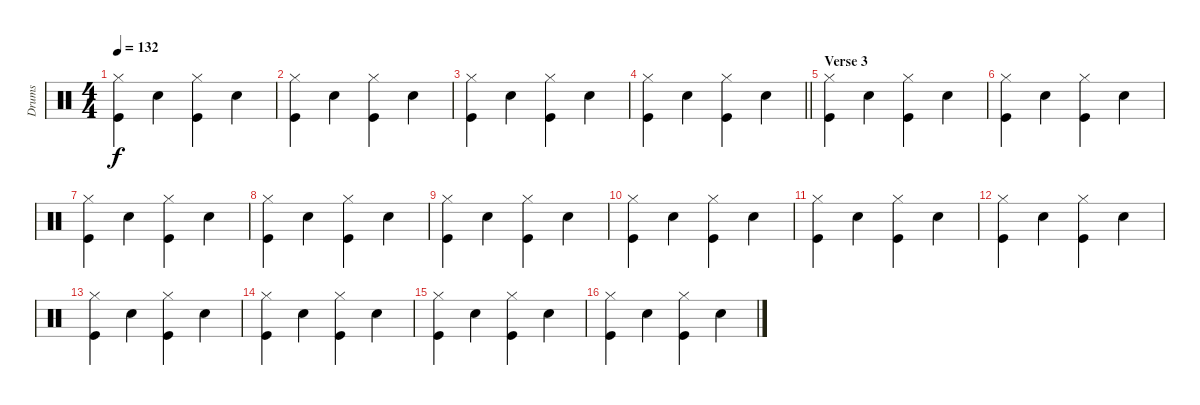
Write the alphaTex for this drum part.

\track ("Drums" "Drums") {instrument percussion}
\staff {score}
\articulation defaults
\ts (4 4)
\tempo 132
\clef neutral
\ks c
("Kick (hit)" "Hi-Hat (closed)").4{dy f} "Snare (hit) 2".4 ("Kick (hit)" "Hi-Hat (closed)").4 "Snare (hit) 2".4 |
("Kick (hit)" "Hi-Hat (closed)").4 "Snare (hit) 2".4 ("Kick (hit)" "Hi-Hat (closed)").4 "Snare (hit) 2".4 |
("Kick (hit)" "Hi-Hat (closed)").4 "Snare (hit) 2".4 ("Kick (hit)" "Hi-Hat (closed)").4 "Snare (hit) 2".4 |
\barLineRight lightlight
("Kick (hit)" "Hi-Hat (closed)").4 "Snare (hit) 2".4 ("Kick (hit)" "Hi-Hat (closed)").4 "Snare (hit) 2".4 |
\section ("" "Verse 3")
("Kick (hit)" "Hi-Hat (closed)").4 "Snare (hit) 2".4 ("Kick (hit)" "Hi-Hat (closed)").4 "Snare (hit) 2".4 |
("Kick (hit)" "Hi-Hat (closed)").4 "Snare (hit) 2".4 ("Kick (hit)" "Hi-Hat (closed)").4 "Snare (hit) 2".4 |
("Kick (hit)" "Hi-Hat (closed)").4 "Snare (hit) 2".4 ("Kick (hit)" "Hi-Hat (closed)").4 "Snare (hit) 2".4 |
("Kick (hit)" "Hi-Hat (closed)").4 "Snare (hit) 2".4 ("Kick (hit)" "Hi-Hat (closed)").4 "Snare (hit) 2".4 |
("Kick (hit)" "Hi-Hat (closed)").4 "Snare (hit) 2".4 ("Kick (hit)" "Hi-Hat (closed)").4 "Snare (hit) 2".4 |
("Kick (hit)" "Hi-Hat (closed)").4 "Snare (hit) 2".4 ("Kick (hit)" "Hi-Hat (closed)").4 "Snare (hit) 2".4 |
("Kick (hit)" "Hi-Hat (closed)").4 "Snare (hit) 2".4 ("Kick (hit)" "Hi-Hat (closed)").4 "Snare (hit) 2".4 |
("Kick (hit)" "Hi-Hat (closed)").4 "Snare (hit) 2".4 ("Kick (hit)" "Hi-Hat (closed)").4 "Snare (hit) 2".4 |
("Kick (hit)" "Hi-Hat (closed)").4 "Snare (hit) 2".4 ("Kick (hit)" "Hi-Hat (closed)").4 "Snare (hit) 2".4 |
("Kick (hit)" "Hi-Hat (closed)").4 "Snare (hit) 2".4 ("Kick (hit)" "Hi-Hat (closed)").4 "Snare (hit) 2".4 |
("Kick (hit)" "Hi-Hat (closed)").4 "Snare (hit) 2".4 ("Kick (hit)" "Hi-Hat (closed)").4 "Snare (hit) 2".4 |
("Kick (hit)" "Hi-Hat (closed)").4 "Snare (hit) 2".4 ("Kick (hit)" "Hi-Hat (closed)").4 "Snare (hit) 2".4
